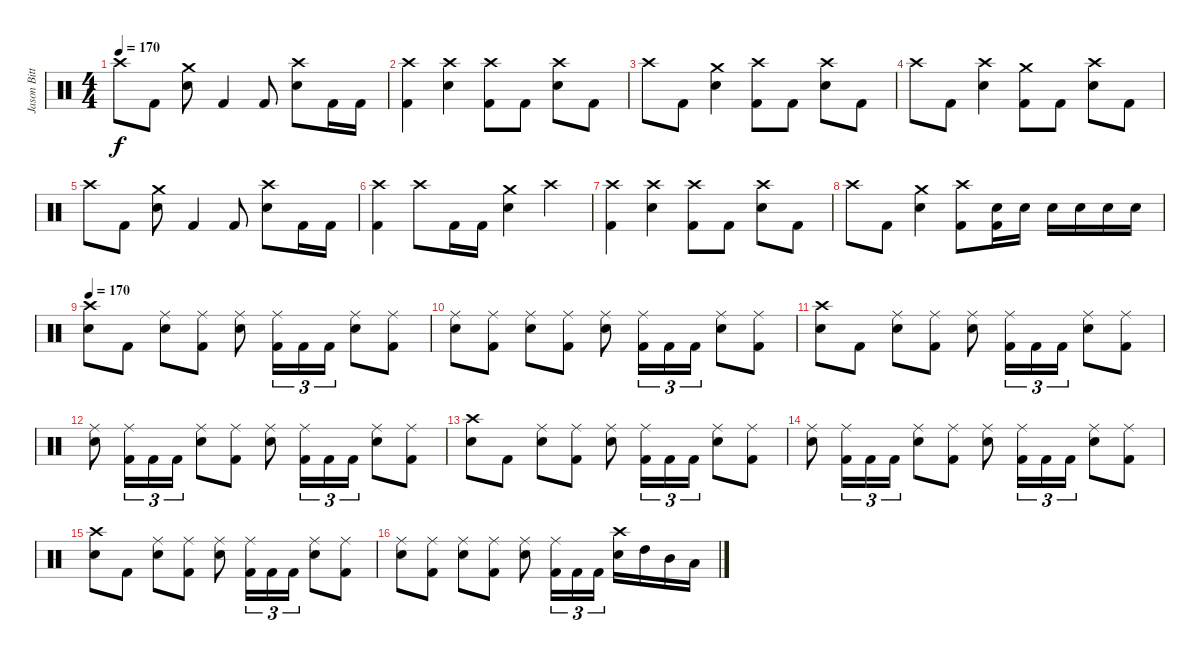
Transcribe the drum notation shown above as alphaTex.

\track ("Jason Bittner" "Jason Bitt") {instrument percussion}
\staff {score}
\articulation defaults
\ts (4 4)
\tempo 170
\clef neutral
\ks c "Crash high (hit)".8{dy f} "Kick (hit) 2".8
("Crash medium (hit)" "Electric Snare (hit)").8 "Kick (hit) 2".4 "Kick (hit) 2".8 ("Crash high (hit)" "Electric Snare (hit)").8 "Kick (hit) 2".16 "Kick (hit) 2".16 |
("Crash high (hit)" "Kick (hit) 2").4 ("Crash high (hit)" "Electric Snare (hit)").4 ("Crash high (hit)" "Kick (hit) 2").8 "Kick (hit) 2".8 ("Crash high (hit)" "Electric Snare (hit)").8 "Kick (hit) 2".8 |
"Crash high (hit)".8 "Kick (hit) 2".8 ("Crash medium (hit)" "Electric Snare (hit)").4 ("Crash high (hit)" "Kick (hit) 2").8 "Kick (hit) 2".8 ("Crash high (hit)" "Electric Snare (hit)").8 "Kick (hit) 2".8 |
"Crash high (hit)".8 "Kick (hit) 2".8 ("Crash high (hit)" "Electric Snare (hit)").4 ("Crash medium (hit)" "Kick (hit) 2").8 "Kick (hit) 2".8 ("Crash high (hit)" "Electric Snare (hit)").8 "Kick (hit) 2".8 |
"Crash high (hit)".8 "Kick (hit) 2".8 ("Crash medium (hit)" "Electric Snare (hit)").8 "Kick (hit) 2".4 "Kick (hit) 2".8 ("Crash high (hit)" "Electric Snare (hit)").8 "Kick (hit) 2".16 "Kick (hit) 2".16 |
("Crash high (hit)" "Kick (hit) 2").4 "Crash high (hit)".8 "Kick (hit) 2".16 "Kick (hit) 2".16 ("Crash medium (hit)" "Electric Snare (hit)").4 "Crash high (hit)".4 |
("Crash high (hit)" "Kick (hit) 2").4 ("Crash high (hit)" "Electric Snare (hit)").4 ("Crash high (hit)" "Kick (hit) 2").8 "Kick (hit) 2".8 ("Crash high (hit)" "Electric Snare (hit)").8 "Kick (hit) 2".8 |
"Crash high (hit)".8 "Kick (hit) 2".8 ("Crash medium (hit)" "Electric Snare (hit)").4 ("Crash high (hit)" "Kick (hit) 2").8 ("Electric Snare (hit)" "Kick (hit) 2").16 "Electric Snare (hit)".16 "Electric Snare (hit)".16 "Electric Snare (hit)".16 "Electric Snare (hit)".16 "Electric Snare (hit)".16 |
\tempo 170
("Crash high (hit)" "Electric Snare (hit)").8 "Kick (hit) 2".8 ("Ride (middle)" "Electric Snare (hit)").8 ("Ride (middle)" "Kick (hit) 2").8 ("Ride (middle)" "Electric Snare (hit)").8 ("Ride (middle)" "Kick (hit) 2").16{tu (3 2)} "Kick (hit) 2".16{tu (3 2)} "Kick (hit) 2".16{tu (3 2)} ("Ride (middle)" "Electric Snare (hit)").8 ("Ride (middle)" "Kick (hit) 2").8 |
("Ride (middle)" "Electric Snare (hit)").8 ("Ride (middle)" "Kick (hit) 2").8 ("Ride (middle)" "Electric Snare (hit)").8 ("Ride (middle)" "Kick (hit) 2").8 ("Ride (middle)" "Electric Snare (hit)").8 ("Ride (middle)" "Kick (hit) 2").16{tu (3 2)} "Kick (hit) 2".16{tu (3 2)} "Kick (hit) 2".16{tu (3 2)} ("Ride (middle)" "Electric Snare (hit)").8 ("Ride (middle)" "Kick (hit) 2").8 |
("Crash high (hit)" "Electric Snare (hit)").8 "Kick (hit) 2".8 ("Ride (middle)" "Electric Snare (hit)").8 ("Ride (middle)" "Kick (hit) 2").8 ("Ride (middle)" "Electric Snare (hit)").8 ("Ride (middle)" "Kick (hit) 2").16{tu (3 2)} "Kick (hit) 2".16{tu (3 2)} "Kick (hit) 2".16{tu (3 2)} ("Ride (middle)" "Electric Snare (hit)").8 ("Ride (middle)" "Kick (hit) 2").8 |
("Ride (middle)" "Electric Snare (hit)").8 ("Ride (middle)" "Kick (hit) 2").16{tu (3 2)} "Kick (hit) 2".16{tu (3 2)} "Kick (hit) 2".16{tu (3 2)} ("Ride (middle)" "Electric Snare (hit)").8 ("Ride (middle)" "Kick (hit) 2").8 ("Ride (middle)" "Electric Snare (hit)").8 ("Ride (middle)" "Kick (hit) 2").16{tu (3 2)} "Kick (hit) 2".16{tu (3 2)} "Kick (hit) 2".16{tu (3 2)} ("Ride (middle)" "Electric Snare (hit)").8 ("Ride (middle)" "Kick (hit) 2").8 |
("Crash high (hit)" "Electric Snare (hit)").8 "Kick (hit) 2".8 ("Ride (middle)" "Electric Snare (hit)").8 ("Ride (middle)" "Kick (hit) 2").8 ("Ride (middle)" "Electric Snare (hit)").8 ("Ride (middle)" "Kick (hit) 2").16{tu (3 2)} "Kick (hit) 2".16{tu (3 2)} "Kick (hit) 2".16{tu (3 2)} ("Ride (middle)" "Electric Snare (hit)").8 ("Ride (middle)" "Kick (hit) 2").8 |
("Ride (middle)" "Electric Snare (hit)").8 ("Ride (middle)" "Kick (hit) 2").16{tu (3 2)} "Kick (hit) 2".16{tu (3 2)} "Kick (hit) 2".16{tu (3 2)} ("Ride (middle)" "Electric Snare (hit)").8 ("Ride (middle)" "Kick (hit) 2").8 ("Ride (middle)" "Electric Snare (hit)").8 ("Ride (middle)" "Kick (hit) 2").16{tu (3 2)} "Kick (hit) 2".16{tu (3 2)} "Kick (hit) 2".16{tu (3 2)} ("Ride (middle)" "Electric Snare (hit)").8 ("Ride (middle)" "Kick (hit) 2").8 |
("Crash high (hit)" "Electric Snare (hit)").8 "Kick (hit) 2".8 ("Ride (middle)" "Electric Snare (hit)").8 ("Ride (middle)" "Kick (hit) 2").8 ("Ride (middle)" "Electric Snare (hit)").8 ("Ride (middle)" "Kick (hit) 2").16{tu (3 2)} "Kick (hit) 2".16{tu (3 2)} "Kick (hit) 2".16{tu (3 2)} ("Ride (middle)" "Electric Snare (hit)").8 ("Ride (middle)" "Kick (hit) 2").8 |
("Ride (middle)" "Electric Snare (hit)").8 ("Ride (middle)" "Kick (hit) 2").8 ("Ride (middle)" "Electric Snare (hit)").8 ("Ride (middle)" "Kick (hit) 2").8 ("Ride (middle)" "Electric Snare (hit)").8 ("Ride (middle)" "Kick (hit) 2").16{tu (3 2)} "Kick (hit) 2".16{tu (3 2)} "Kick (hit) 2".16{tu (3 2)} ("Crash high (hit)" "Electric Snare (hit)").16 "High Tom (hit)".16 "Mid Tom (hit)".16 "Low Tom (hit)".16
